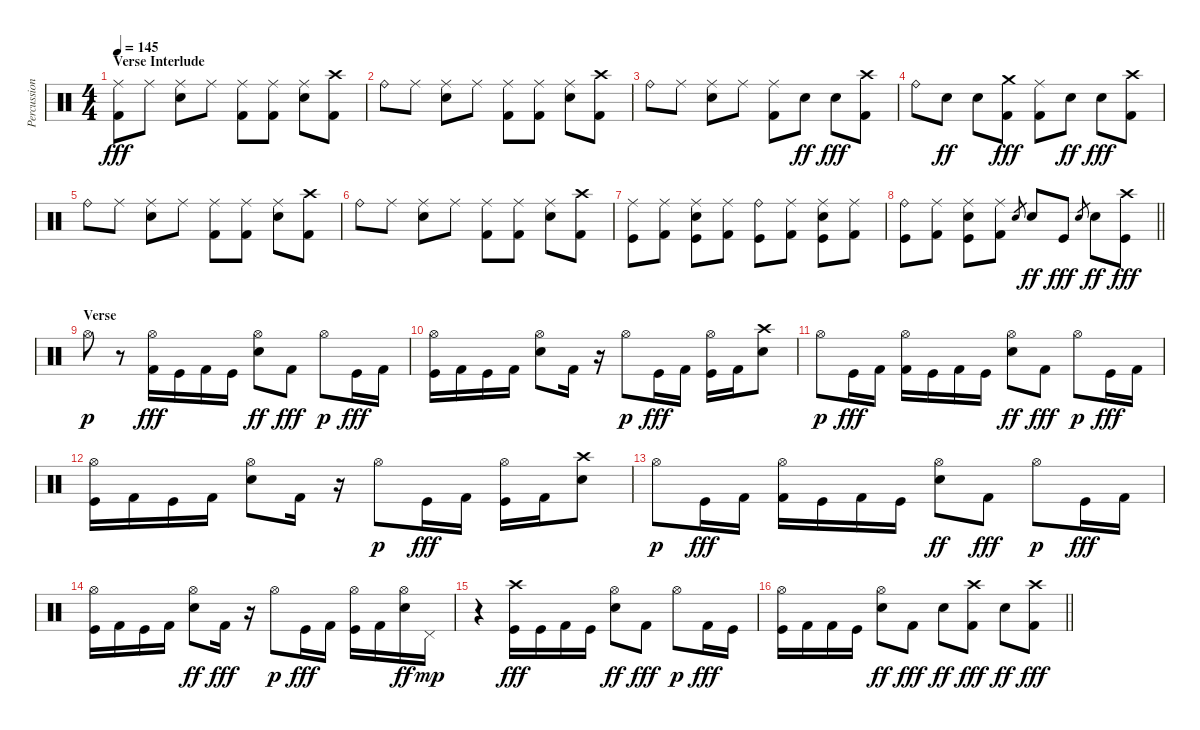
\track ("Percussion" "Percussion") {instrument percussion}
\staff {score}
\articulation defaults
\ts (4 4)
\section ("" "Verse Interlude")
\tempo 145
\clef neutral
\ks c
("Ride (middle)" "Kick (hit) 2").8{dy fff} "Ride (middle)".8 ("Ride (middle)" "Snare (hit) 2").8 "Ride (middle)".8 ("Ride (middle)" "Kick (hit) 2").8 ("Ride (middle)" "Kick (hit) 2").8 ("Ride (middle)" "Snare (hit) 2").8 ("Crash high (hit)" "Kick (hit) 2").8 |
"Ride (bell)".8 "Ride (middle)".8 ("Ride (middle)" "Snare (hit) 2").8 "Ride (middle)".8 ("Ride (middle)" "Kick (hit) 2").8 ("Ride (middle)" "Kick (hit) 2").8 ("Ride (middle)" "Snare (hit) 2").8 ("Crash high (hit)" "Kick (hit) 2").8 |
"Ride (bell)".8 "Ride (middle)".8 ("Ride (middle)" "Snare (hit) 2").8 "Ride (middle)".8 ("Ride (middle)" "Kick (hit) 2").8 "Snare (hit) 2".8{dy ff} "Snare (hit) 2".8{dy fff} ("Crash high (hit)" "Kick (hit) 2").8 |
"Ride (bell)".8 "Snare (hit) 2".8{dy ff} "Snare (hit) 2".8 ("Crash medium (hit)" "Kick (hit) 2").8{dy fff} ("Ride (middle)" "Kick (hit) 2").8 "Snare (hit) 2".8{dy ff} "Snare (hit) 2".8{dy fff} ("Crash high (hit)" "Kick (hit) 2").8 |
"Ride (bell)".8 "Ride (middle)".8 ("Ride (middle)" "Snare (hit) 2").8 "Ride (middle)".8 ("Ride (middle)" "Kick (hit) 2").8 ("Ride (middle)" "Kick (hit) 2").8 ("Ride (middle)" "Snare (hit) 2").8 ("Crash high (hit)" "Kick (hit) 2").8 |
"Ride (bell)".8 "Ride (middle)".8 ("Ride (middle)" "Snare (hit) 2").8 "Ride (middle)".8 ("Ride (middle)" "Kick (hit) 2").8 ("Ride (middle)" "Kick (hit) 2").8 ("Ride (middle)" "Snare (hit) 2").8 ("Crash high (hit)" "Kick (hit) 2").8 |
("Ride (middle)" "Kick (hit)").8 ("Ride (middle)" "Kick (hit) 2").8 ("Ride (middle)" "Snare (hit) 2" "Kick (hit)").8 ("Ride (middle)" "Kick (hit) 2").8 ("Ride (bell)" "Kick (hit)").8 ("Ride (middle)" "Kick (hit) 2").8 ("Ride (middle)" "Snare (hit) 2" "Kick (hit)").8 ("Ride (middle)" "Kick (hit) 2").8 |
\barLineRight lightlight
("Ride (bell)" "Kick (hit)").8 ("Ride (middle)" "Kick (hit) 2").8 ("Ride (middle)" "Snare (hit) 2" "Kick (hit)").8 ("Ride (middle)" "Kick (hit) 2").8 "Snare (hit) 2".8{gr} "Snare (hit) 2".8{dy ff} "Kick (hit)".8{dy fff} "Snare (hit) 2".8{gr} "Snare (hit) 2".8{dy ff} ("Crash high (hit)" "Kick (hit)").8{dy fff} |
\section ("" "Verse")
"Hi-Hat (open)".8{dy p} r.8 ("Hi-Hat (open)" "Kick (hit) 2").16{dy fff} "Kick (hit)".16 "Kick (hit) 2".16 "Kick (hit)".16 ("Hi-Hat (open)" "Snare (hit) 2").8{dy ff} "Kick (hit) 2".8{dy fff} "Hi-Hat (open)".8{dy p} "Kick (hit)".16{dy fff} "Kick (hit) 2".16 |
("Hi-Hat (open)" "Kick (hit)").16 "Kick (hit) 2".16 "Kick (hit)".16 "Kick (hit) 2".16 ("Hi-Hat (open)" "Snare (hit) 2").8 "Kick (hit) 2".16 r.16 "Hi-Hat (open)".8{dy p} "Kick (hit)".16{dy fff} "Kick (hit) 2".16 ("Hi-Hat (open)" "Kick (hit)").16 "Kick (hit) 2".16 ("Crash high (hit)" "Snare (hit) 2").8 |
"Hi-Hat (open)".8{dy p} "Kick (hit)".16{dy fff} "Kick (hit) 2".16 ("Hi-Hat (open)" "Kick (hit) 2").16 "Kick (hit)".16 "Kick (hit) 2".16 "Kick (hit)".16 ("Hi-Hat (open)" "Snare (hit) 2").8{dy ff} "Kick (hit) 2".8{dy fff} "Hi-Hat (open)".8{dy p} "Kick (hit)".16{dy fff} "Kick (hit) 2".16 |
("Hi-Hat (open)" "Kick (hit)").16 "Kick (hit) 2".16 "Kick (hit)".16 "Kick (hit) 2".16 ("Hi-Hat (open)" "Snare (hit) 2").8 "Kick (hit) 2".16 r.16 "Hi-Hat (open)".8{dy p} "Kick (hit)".16{dy fff} "Kick (hit) 2".16 ("Hi-Hat (open)" "Kick (hit)").16 "Kick (hit) 2".16 ("Crash high (hit)" "Snare (hit) 2").8 |
"Hi-Hat (open)".8{dy p} "Kick (hit)".16{dy fff} "Kick (hit) 2".16 ("Hi-Hat (open)" "Kick (hit) 2").16 "Kick (hit)".16 "Kick (hit) 2".16 "Kick (hit)".16 ("Hi-Hat (open)" "Snare (hit) 2").8{dy ff} "Kick (hit) 2".8{dy fff} "Hi-Hat (open)".8{dy p} "Kick (hit)".16{dy fff} "Kick (hit) 2".16 |
("Hi-Hat (open)" "Kick (hit)").16 "Kick (hit) 2".16 "Kick (hit)".16 "Kick (hit) 2".16 ("Hi-Hat (open)" "Snare (hit) 2").8{dy ff} "Kick (hit) 2".16{dy fff} r.16 "Hi-Hat (open)".8{dy p} "Kick (hit)".16{dy fff} "Kick (hit) 2".16 ("Hi-Hat (open)" "Kick (hit)").16 "Kick (hit) 2".16 ("Hi-Hat (open)" "Snare (hit) 2").16{dy ff} "Pedal Hi-Hat (hit)".16{dy mp} |
r.4 ("Crash high (hit)" "Kick (hit)").16{dy fff} "Kick (hit)".16 "Kick (hit) 2".16 "Kick (hit)".16 ("Hi-Hat (open)" "Snare (hit) 2").8{dy ff} "Kick (hit) 2".8{dy fff} "Hi-Hat (open)".8{dy p} "Kick (hit) 2".16{dy fff} "Kick (hit)".16 |
\barLineRight lightlight
("Hi-Hat (open)" "Kick (hit)").16 "Kick (hit) 2".16 "Kick (hit) 2".16 "Kick (hit)".16 ("Hi-Hat (open)" "Snare (hit) 2").8{dy ff} "Kick (hit) 2".8{dy fff} "Snare (hit) 2".8{dy ff} ("Crash high (hit)" "Kick (hit) 2").8{dy fff} "Snare (hit) 2".8{dy ff} ("Crash high (hit)" "Kick (hit) 2").8{dy fff}
